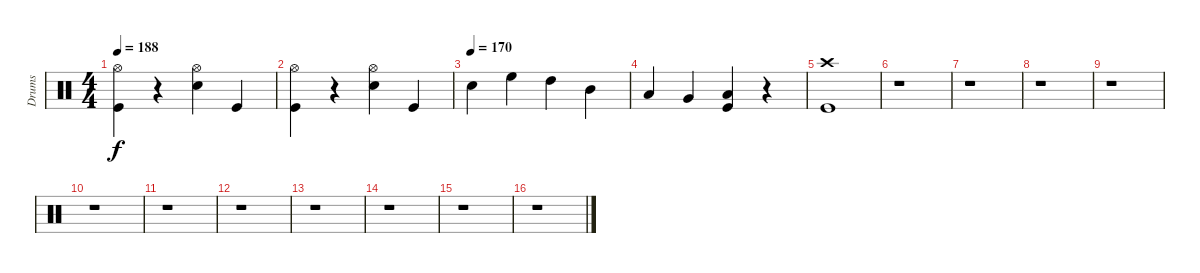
\track ("Drums" "Drums") {instrument percussion}
\staff {score}
\articulation defaults
\ts (4 4)
\tempo 188
\clef neutral
\ks c
("Hi-Hat (open)" "Kick (hit)").4{dy f} r.4 ("Hi-Hat (open)" "Electric Snare (hit)").4 "Kick (hit)".4 |
("Hi-Hat (open)" "Kick (hit)").4 r.4 ("Hi-Hat (open)" "Electric Snare (hit)").4 "Kick (hit)".4 |
\tempo (170)
"Electric Snare (hit)".4 "High Floor Tom (hit)".4 "High Tom (hit)".4 "Mid Tom (hit)".4 |
"Low Tom (hit)".4 "Very Low Tom (hit)".4 ("Low Floor Tom (hit)" "Kick (hit)").4 r.4 |
("Crash high (hit)" "Kick (hit)").1 |
r.1 |
r.1 |
r.1 |
r.1 |
r.1 |
r.1 |
r.1 |
r.1 |
r.1 |
r.1 |
r.1
